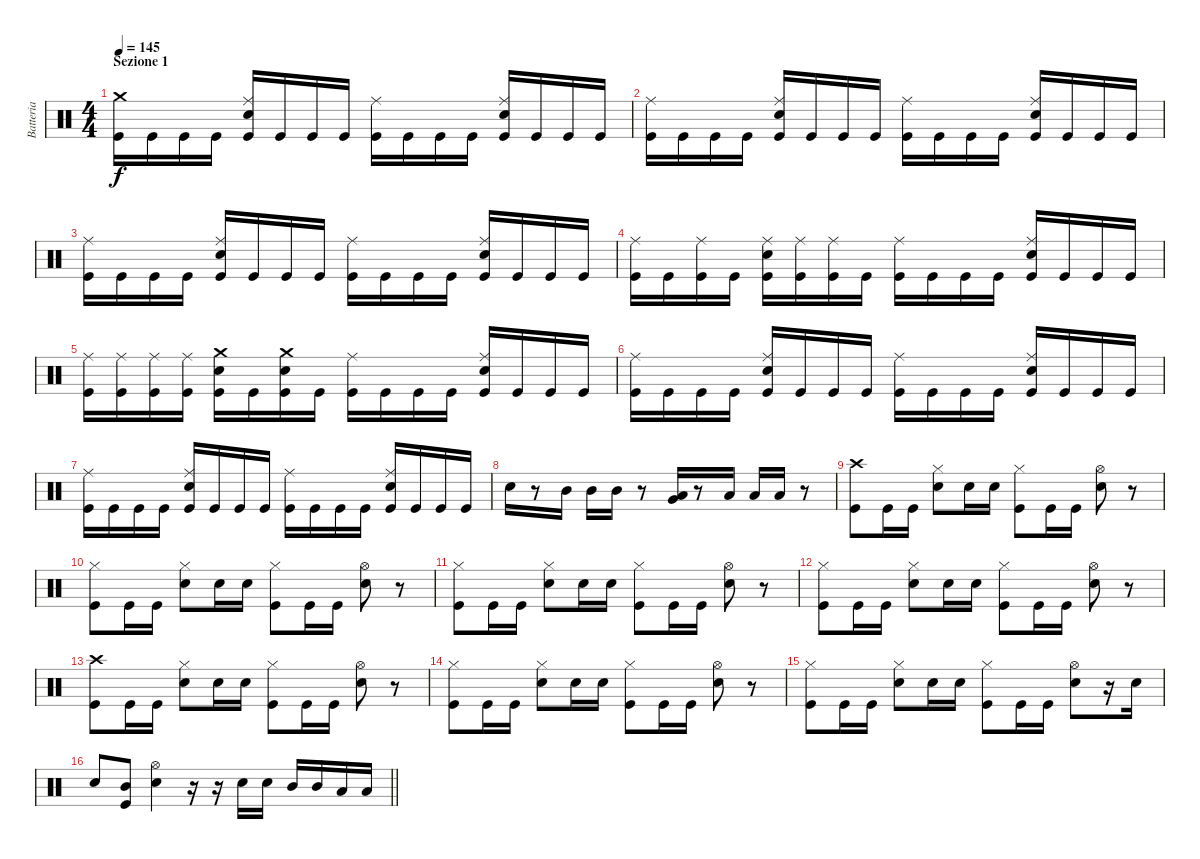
\track ("Batteria" "Batteria") {instrument percussion}
\staff {score}
\articulation defaults
\ts (4 4)
\section ("" "Sezione 1")
\tempo 145
\clef neutral
\ks c
("Crash medium (hit)" "Kick (hit)").16{dy f} "Kick (hit)".16 "Kick (hit)".16 "Kick (hit)".16 ("Ride (middle)" "Electric Snare (hit)" "Kick (hit)").16 "Kick (hit)".16 "Kick (hit)".16 "Kick (hit)".16 ("Ride (middle)" "Kick (hit)").16 "Kick (hit)".16 "Kick (hit)".16 "Kick (hit)".16 ("Ride (middle)" "Electric Snare (hit)" "Kick (hit)").16 "Kick (hit)".16 "Kick (hit)".16 "Kick (hit)".16 |
("Ride (middle)" "Kick (hit)").16 "Kick (hit)".16 "Kick (hit)".16 "Kick (hit)".16 ("Ride (middle)" "Electric Snare (hit)" "Kick (hit)").16 "Kick (hit)".16 "Kick (hit)".16 "Kick (hit)".16 ("Ride (middle)" "Kick (hit)").16 "Kick (hit)".16 "Kick (hit)".16 "Kick (hit)".16 ("Ride (middle)" "Electric Snare (hit)" "Kick (hit)").16 "Kick (hit)".16 "Kick (hit)".16 "Kick (hit)".16 |
("Ride (middle)" "Kick (hit)").16 "Kick (hit)".16 "Kick (hit)".16 "Kick (hit)".16 ("Ride (middle)" "Electric Snare (hit)" "Kick (hit)").16 "Kick (hit)".16 "Kick (hit)".16 "Kick (hit)".16 ("Ride (middle)" "Kick (hit)").16 "Kick (hit)".16 "Kick (hit)".16 "Kick (hit)".16 ("Ride (middle)" "Electric Snare (hit)" "Kick (hit)").16 "Kick (hit)".16 "Kick (hit)".16 "Kick (hit)".16 |
("Ride (middle)" "Kick (hit)").16 "Kick (hit)".16 ("Ride (middle)" "Kick (hit)").16 "Kick (hit)".16 ("Ride (middle)" "Electric Snare (hit)" "Kick (hit)").16 ("Ride (middle)" "Kick (hit)").16 ("Ride (middle)" "Kick (hit)").16 "Kick (hit)".16 ("Ride (middle)" "Kick (hit)").16 "Kick (hit)".16 "Kick (hit)".16 "Kick (hit)".16 ("Ride (middle)" "Electric Snare (hit)" "Kick (hit)").16 "Kick (hit)".16 "Kick (hit)".16 "Kick (hit)".16 |
("Ride (middle)" "Kick (hit)").16 ("Ride (middle)" "Kick (hit)").16 ("Ride (middle)" "Kick (hit)").16 ("Ride (middle)" "Kick (hit)").16 ("Crash medium (hit)" "Electric Snare (hit)" "Kick (hit)").16 "Kick (hit)".16 ("Crash medium (hit)" "Electric Snare (hit)" "Kick (hit)").16 "Kick (hit)".16 ("Ride (middle)" "Kick (hit)").16 "Kick (hit)".16 "Kick (hit)".16 "Kick (hit)".16 ("Ride (middle)" "Electric Snare (hit)" "Kick (hit)").16 "Kick (hit)".16 "Kick (hit)".16 "Kick (hit)".16 |
("Ride (middle)" "Kick (hit)").16 "Kick (hit)".16 "Kick (hit)".16 "Kick (hit)".16 ("Ride (middle)" "Electric Snare (hit)" "Kick (hit)").16 "Kick (hit)".16 "Kick (hit)".16 "Kick (hit)".16 ("Ride (middle)" "Kick (hit)").16 "Kick (hit)".16 "Kick (hit)".16 "Kick (hit)".16 ("Ride (middle)" "Electric Snare (hit)" "Kick (hit)").16 "Kick (hit)".16 "Kick (hit)".16 "Kick (hit)".16 |
("Ride (middle)" "Kick (hit)").16 "Kick (hit)".16 "Kick (hit)".16 "Kick (hit)".16 ("Ride (middle)" "Electric Snare (hit)" "Kick (hit)").16 "Kick (hit)".16 "Kick (hit)".16 "Kick (hit)".16 ("Ride (middle)" "Kick (hit)").16 "Kick (hit)".16 "Kick (hit)".16 "Kick (hit)".16 ("Ride (middle)" "Electric Snare (hit)" "Kick (hit)").16 "Kick (hit)".16 "Kick (hit)".16 "Kick (hit)".16 |
"Electric Snare (hit)".16 r.8 "Mid Tom (hit)".16 "Mid Tom (hit)".16 "Mid Tom (hit)".16 r.8 ("Very Low Tom (hit)" "Low Tom (hit)").16 r.8 "Low Tom (hit)".16 "Low Tom (hit)".16 "Low Tom (hit)".16 r.8 |
("Crash high (hit)" "Kick (hit)").8 "Kick (hit)".16 "Kick (hit)".16 ("Hi-Hat (closed)" "Electric Snare (hit)").8 "Electric Snare (hit)".16 "Electric Snare (hit)".16 ("Hi-Hat (closed)" "Kick (hit)").8 "Kick (hit)".16 "Kick (hit)".16 ("Hi-Hat (open)" "Electric Snare (hit)").8 r.8 |
("Hi-Hat (closed)" "Kick (hit)").8 "Kick (hit)".16 "Kick (hit)".16 ("Hi-Hat (closed)" "Electric Snare (hit)").8 "Electric Snare (hit)".16 "Electric Snare (hit)".16 ("Hi-Hat (closed)" "Kick (hit)").8 "Kick (hit)".16 "Kick (hit)".16 ("Hi-Hat (open)" "Electric Snare (hit)").8 r.8 |
("Hi-Hat (closed)" "Kick (hit)").8 "Kick (hit)".16 "Kick (hit)".16 ("Hi-Hat (closed)" "Electric Snare (hit)").8 "Electric Snare (hit)".16 "Electric Snare (hit)".16 ("Hi-Hat (closed)" "Kick (hit)").8 "Kick (hit)".16 "Kick (hit)".16 ("Hi-Hat (open)" "Electric Snare (hit)").8 r.8 |
("Hi-Hat (closed)" "Kick (hit)").8 "Kick (hit)".16 "Kick (hit)".16 ("Hi-Hat (closed)" "Electric Snare (hit)").8 "Electric Snare (hit)".16 "Electric Snare (hit)".16 ("Hi-Hat (closed)" "Kick (hit)").8 "Kick (hit)".16 "Kick (hit)".16 ("Hi-Hat (open)" "Electric Snare (hit)").8 r.8 |
("Crash high (hit)" "Kick (hit)").8 "Kick (hit)".16 "Kick (hit)".16 ("Hi-Hat (closed)" "Electric Snare (hit)").8 "Electric Snare (hit)".16 "Electric Snare (hit)".16 ("Hi-Hat (closed)" "Kick (hit)").8 "Kick (hit)".16 "Kick (hit)".16 ("Hi-Hat (open)" "Electric Snare (hit)").8 r.8 |
("Hi-Hat (closed)" "Kick (hit)").8 "Kick (hit)".16 "Kick (hit)".16 ("Hi-Hat (closed)" "Electric Snare (hit)").8 "Electric Snare (hit)".16 "Electric Snare (hit)".16 ("Hi-Hat (closed)" "Kick (hit)").8 "Kick (hit)".16 "Kick (hit)".16 ("Hi-Hat (open)" "Electric Snare (hit)").8 r.8 |
("Hi-Hat (closed)" "Kick (hit)").8 "Kick (hit)".16 "Kick (hit)".16 ("Hi-Hat (closed)" "Electric Snare (hit)").8 "Electric Snare (hit)".16 "Electric Snare (hit)".16 ("Hi-Hat (closed)" "Kick (hit)").8 "Kick (hit)".16 "Kick (hit)".16 ("Hi-Hat (open)" "Electric Snare (hit)").8 r.16 "Electric Snare (hit)".16 |
\barLineRight lightlight "Electric Snare (hit)".8
("Mid Tom (hit)" "Kick (hit)").8 ("Hi-Hat (open)" "Electric Snare (hit)").4 r.16 r.16 "Electric Snare (hit)".16 "Electric Snare (hit)".16 "Mid Tom (hit)".16 "Mid Tom (hit)".16 "Low Tom (hit)".16 "Low Tom (hit)".16
